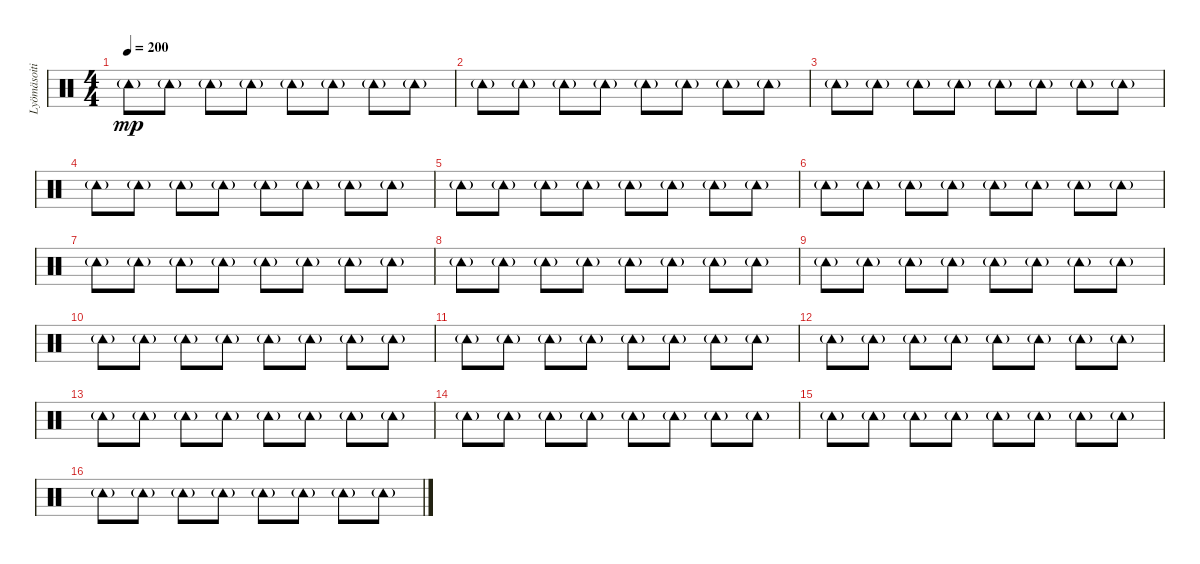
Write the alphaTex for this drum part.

\track ("Lyömäsoitin" "Lyömäsoiti") {instrument percussion}
\staff {score}
\articulation defaults
\ts (4 4)
\tempo 200
\clef neutral
\ks c "Tambourine (hit)"{g}.8{dy mp} "Tambourine (hit)"{g}.8 "Tambourine (hit)"{g}.8 "Tambourine (hit)"{g}.8 "Tambourine (hit)"{g}.8 "Tambourine (hit)"{g}.8 "Tambourine (hit)"{g}.8 "Tambourine (hit)"{g}.8
|
"Tambourine (hit)"{g}.8 "Tambourine (hit)"{g}.8 "Tambourine (hit)"{g}.8 "Tambourine (hit)"{g}.8 "Tambourine (hit)"{g}.8 "Tambourine (hit)"{g}.8 "Tambourine (hit)"{g}.8 "Tambourine (hit)"{g}.8 |
"Tambourine (hit)"{g}.8 "Tambourine (hit)"{g}.8 "Tambourine (hit)"{g}.8 "Tambourine (hit)"{g}.8 "Tambourine (hit)"{g}.8 "Tambourine (hit)"{g}.8 "Tambourine (hit)"{g}.8 "Tambourine (hit)"{g}.8 |
"Tambourine (hit)"{g}.8 "Tambourine (hit)"{g}.8 "Tambourine (hit)"{g}.8 "Tambourine (hit)"{g}.8 "Tambourine (hit)"{g}.8 "Tambourine (hit)"{g}.8 "Tambourine (hit)"{g}.8 "Tambourine (hit)"{g}.8 |
"Tambourine (hit)"{g}.8 "Tambourine (hit)"{g}.8 "Tambourine (hit)"{g}.8 "Tambourine (hit)"{g}.8 "Tambourine (hit)"{g}.8 "Tambourine (hit)"{g}.8 "Tambourine (hit)"{g}.8 "Tambourine (hit)"{g}.8 |
"Tambourine (hit)"{g}.8 "Tambourine (hit)"{g}.8 "Tambourine (hit)"{g}.8 "Tambourine (hit)"{g}.8 "Tambourine (hit)"{g}.8 "Tambourine (hit)"{g}.8 "Tambourine (hit)"{g}.8 "Tambourine (hit)"{g}.8 |
"Tambourine (hit)"{g}.8 "Tambourine (hit)"{g}.8 "Tambourine (hit)"{g}.8 "Tambourine (hit)"{g}.8 "Tambourine (hit)"{g}.8 "Tambourine (hit)"{g}.8 "Tambourine (hit)"{g}.8 "Tambourine (hit)"{g}.8 |
"Tambourine (hit)"{g}.8 "Tambourine (hit)"{g}.8 "Tambourine (hit)"{g}.8 "Tambourine (hit)"{g}.8 "Tambourine (hit)"{g}.8 "Tambourine (hit)"{g}.8 "Tambourine (hit)"{g}.8 "Tambourine (hit)"{g}.8 |
"Tambourine (hit)"{g}.8 "Tambourine (hit)"{g}.8 "Tambourine (hit)"{g}.8 "Tambourine (hit)"{g}.8 "Tambourine (hit)"{g}.8 "Tambourine (hit)"{g}.8 "Tambourine (hit)"{g}.8 "Tambourine (hit)"{g}.8 |
"Tambourine (hit)"{g}.8 "Tambourine (hit)"{g}.8 "Tambourine (hit)"{g}.8 "Tambourine (hit)"{g}.8 "Tambourine (hit)"{g}.8 "Tambourine (hit)"{g}.8 "Tambourine (hit)"{g}.8 "Tambourine (hit)"{g}.8 |
"Tambourine (hit)"{g}.8 "Tambourine (hit)"{g}.8 "Tambourine (hit)"{g}.8 "Tambourine (hit)"{g}.8 "Tambourine (hit)"{g}.8 "Tambourine (hit)"{g}.8 "Tambourine (hit)"{g}.8 "Tambourine (hit)"{g}.8 |
"Tambourine (hit)"{g}.8 "Tambourine (hit)"{g}.8 "Tambourine (hit)"{g}.8 "Tambourine (hit)"{g}.8 "Tambourine (hit)"{g}.8 "Tambourine (hit)"{g}.8 "Tambourine (hit)"{g}.8 "Tambourine (hit)"{g}.8 |
"Tambourine (hit)"{g}.8 "Tambourine (hit)"{g}.8 "Tambourine (hit)"{g}.8 "Tambourine (hit)"{g}.8 "Tambourine (hit)"{g}.8 "Tambourine (hit)"{g}.8 "Tambourine (hit)"{g}.8 "Tambourine (hit)"{g}.8 |
"Tambourine (hit)"{g}.8 "Tambourine (hit)"{g}.8 "Tambourine (hit)"{g}.8 "Tambourine (hit)"{g}.8 "Tambourine (hit)"{g}.8 "Tambourine (hit)"{g}.8 "Tambourine (hit)"{g}.8 "Tambourine (hit)"{g}.8 |
"Tambourine (hit)"{g}.8 "Tambourine (hit)"{g}.8 "Tambourine (hit)"{g}.8 "Tambourine (hit)"{g}.8 "Tambourine (hit)"{g}.8 "Tambourine (hit)"{g}.8 "Tambourine (hit)"{g}.8 "Tambourine (hit)"{g}.8 |
"Tambourine (hit)"{g}.8 "Tambourine (hit)"{g}.8 "Tambourine (hit)"{g}.8 "Tambourine (hit)"{g}.8 "Tambourine (hit)"{g}.8 "Tambourine (hit)"{g}.8 "Tambourine (hit)"{g}.8 "Tambourine (hit)"{g}.8
